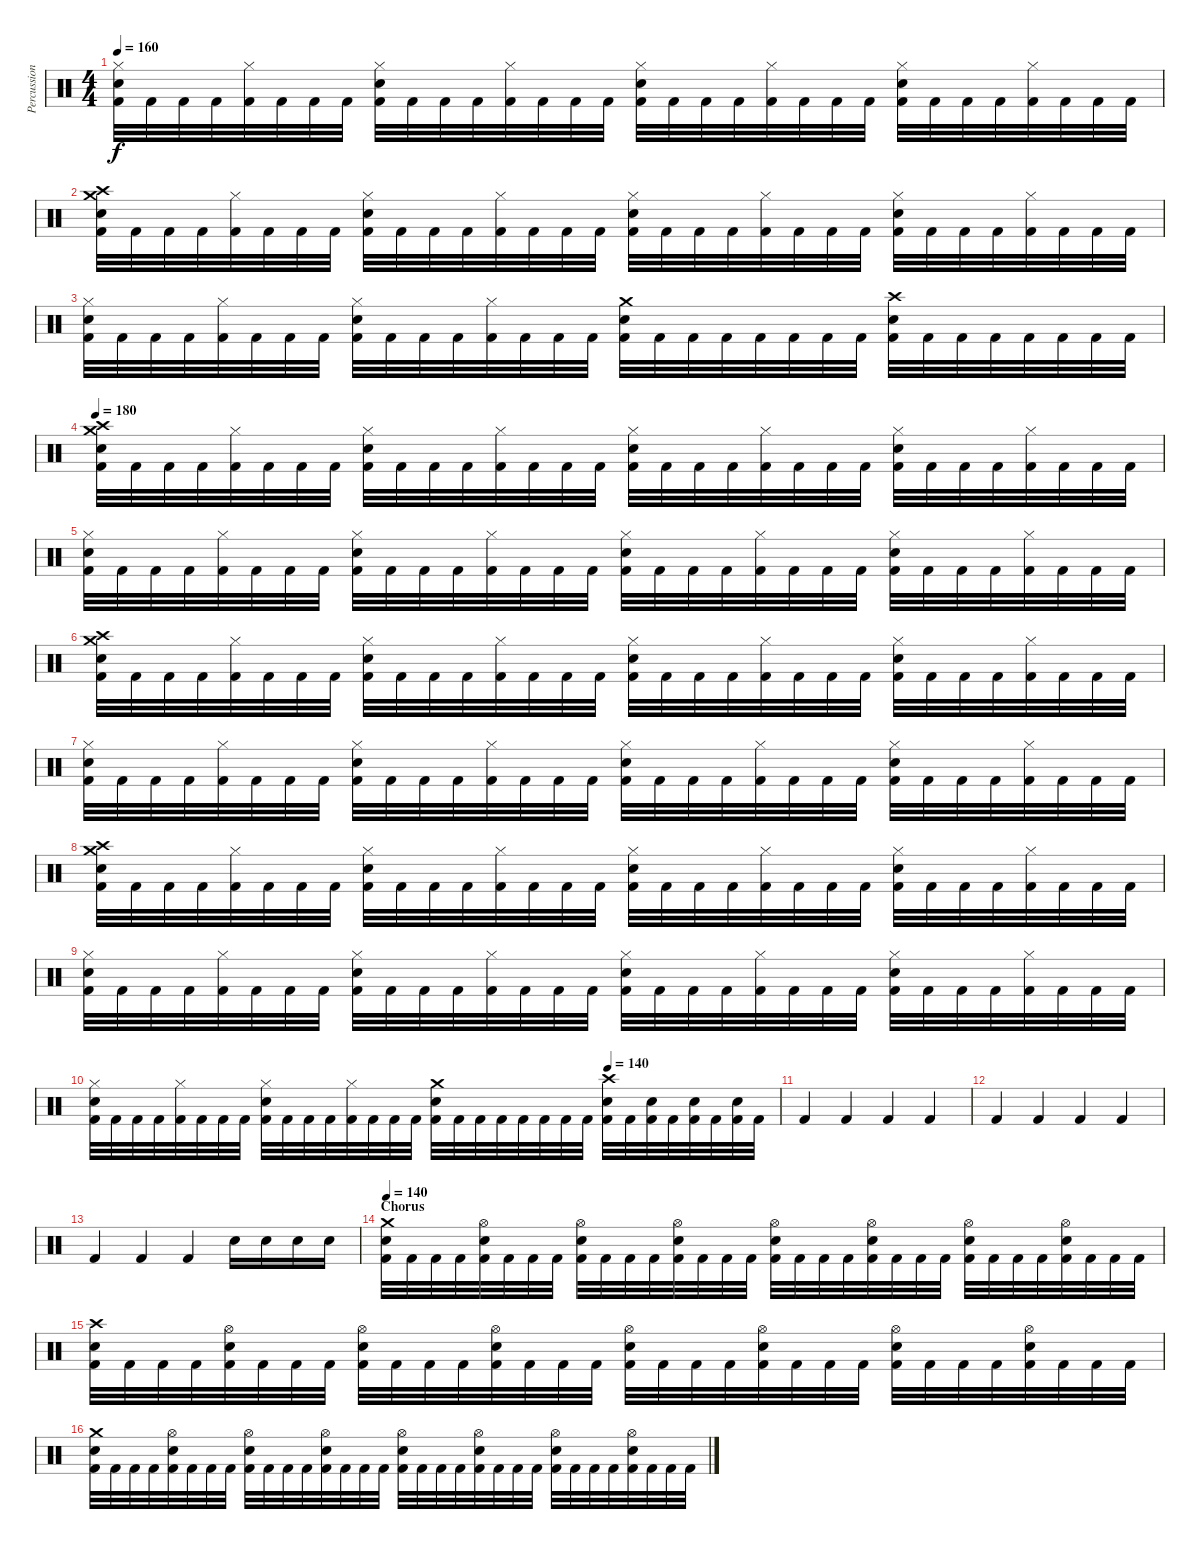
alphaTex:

\track ("Percussion" "Percussion") {instrument percussion}
\staff {score}
\articulation defaults
\ts (4 4)
\tempo 160
\clef neutral
\ks c
("Hi-Hat (closed)" "Electric Snare (hit)" "Kick (hit) 2").32{dy f} "Kick (hit) 2".32 "Kick (hit) 2".32 "Kick (hit) 2".32 ("Hi-Hat (closed)" "Kick (hit) 2").32 "Kick (hit) 2".32 "Kick (hit) 2".32 "Kick (hit) 2".32 ("Hi-Hat (closed)" "Electric Snare (hit)" "Kick (hit) 2").32 "Kick (hit) 2".32 "Kick (hit) 2".32 "Kick (hit) 2".32 ("Hi-Hat (closed)" "Kick (hit) 2").32 "Kick (hit) 2".32 "Kick (hit) 2".32 "Kick (hit) 2".32 ("Hi-Hat (closed)" "Electric Snare (hit)" "Kick (hit) 2").32 "Kick (hit) 2".32 "Kick (hit) 2".32 "Kick (hit) 2".32 ("Hi-Hat (closed)" "Kick (hit) 2").32 "Kick (hit) 2".32 "Kick (hit) 2".32 "Kick (hit) 2".32 ("Hi-Hat (closed)" "Electric Snare (hit)" "Kick (hit) 2").32 "Kick (hit) 2".32 "Kick (hit) 2".32 "Kick (hit) 2".32 ("Hi-Hat (closed)" "Kick (hit) 2").32 "Kick (hit) 2".32 "Kick (hit) 2".32 "Kick (hit) 2".32 |
("Crash medium (hit)" "Crash high (hit)" "Electric Snare (hit)" "Kick (hit) 2").32 "Kick (hit) 2".32 "Kick (hit) 2".32 "Kick (hit) 2".32 ("Hi-Hat (closed)" "Kick (hit) 2").32 "Kick (hit) 2".32 "Kick (hit) 2".32 "Kick (hit) 2".32 ("Hi-Hat (closed)" "Electric Snare (hit)" "Kick (hit) 2").32 "Kick (hit) 2".32 "Kick (hit) 2".32 "Kick (hit) 2".32 ("Hi-Hat (closed)" "Kick (hit) 2").32 "Kick (hit) 2".32 "Kick (hit) 2".32 "Kick (hit) 2".32 ("Hi-Hat (closed)" "Electric Snare (hit)" "Kick (hit) 2").32 "Kick (hit) 2".32 "Kick (hit) 2".32 "Kick (hit) 2".32 ("Hi-Hat (closed)" "Kick (hit) 2").32 "Kick (hit) 2".32 "Kick (hit) 2".32 "Kick (hit) 2".32 ("Hi-Hat (closed)" "Electric Snare (hit)" "Kick (hit) 2").32 "Kick (hit) 2".32 "Kick (hit) 2".32 "Kick (hit) 2".32 ("Hi-Hat (closed)" "Kick (hit) 2").32 "Kick (hit) 2".32 "Kick (hit) 2".32 "Kick (hit) 2".32 |
("Hi-Hat (closed)" "Electric Snare (hit)" "Kick (hit) 2").32 "Kick (hit) 2".32 "Kick (hit) 2".32 "Kick (hit) 2".32 ("Hi-Hat (closed)" "Kick (hit) 2").32 "Kick (hit) 2".32 "Kick (hit) 2".32 "Kick (hit) 2".32 ("Hi-Hat (closed)" "Electric Snare (hit)" "Kick (hit) 2").32 "Kick (hit) 2".32 "Kick (hit) 2".32 "Kick (hit) 2".32 ("Hi-Hat (closed)" "Kick (hit) 2").32 "Kick (hit) 2".32 "Kick (hit) 2".32 "Kick (hit) 2".32 ("Crash medium (hit)" "Electric Snare (hit)" "Kick (hit) 2").32 "Kick (hit) 2".32 "Kick (hit) 2".32 "Kick (hit) 2".32 "Kick (hit) 2".32 "Kick (hit) 2".32 "Kick (hit) 2".32 "Kick (hit) 2".32 ("Crash high (hit)" "Electric Snare (hit)" "Kick (hit) 2").32 "Kick (hit) 2".32 "Kick (hit) 2".32 "Kick (hit) 2".32 "Kick (hit) 2".32 "Kick (hit) 2".32 "Kick (hit) 2".32 "Kick (hit) 2".32 |
\tempo 180
("Crash medium (hit)" "Crash high (hit)" "Electric Snare (hit)" "Kick (hit) 2").32 "Kick (hit) 2".32 "Kick (hit) 2".32 "Kick (hit) 2".32 ("Hi-Hat (closed)" "Kick (hit) 2").32 "Kick (hit) 2".32 "Kick (hit) 2".32 "Kick (hit) 2".32 ("Hi-Hat (closed)" "Electric Snare (hit)" "Kick (hit) 2").32 "Kick (hit) 2".32 "Kick (hit) 2".32 "Kick (hit) 2".32 ("Hi-Hat (closed)" "Kick (hit) 2").32 "Kick (hit) 2".32 "Kick (hit) 2".32 "Kick (hit) 2".32 ("Hi-Hat (closed)" "Electric Snare (hit)" "Kick (hit) 2").32 "Kick (hit) 2".32 "Kick (hit) 2".32 "Kick (hit) 2".32 ("Hi-Hat (closed)" "Kick (hit) 2").32 "Kick (hit) 2".32 "Kick (hit) 2".32 "Kick (hit) 2".32 ("Hi-Hat (closed)" "Electric Snare (hit)" "Kick (hit) 2").32 "Kick (hit) 2".32 "Kick (hit) 2".32 "Kick (hit) 2".32 ("Hi-Hat (closed)" "Kick (hit) 2").32 "Kick (hit) 2".32 "Kick (hit) 2".32 "Kick (hit) 2".32 |
("Hi-Hat (closed)" "Electric Snare (hit)" "Kick (hit) 2").32 "Kick (hit) 2".32 "Kick (hit) 2".32 "Kick (hit) 2".32 ("Hi-Hat (closed)" "Kick (hit) 2").32 "Kick (hit) 2".32 "Kick (hit) 2".32 "Kick (hit) 2".32 ("Hi-Hat (closed)" "Electric Snare (hit)" "Kick (hit) 2").32 "Kick (hit) 2".32 "Kick (hit) 2".32 "Kick (hit) 2".32 ("Hi-Hat (closed)" "Kick (hit) 2").32 "Kick (hit) 2".32 "Kick (hit) 2".32 "Kick (hit) 2".32 ("Hi-Hat (closed)" "Electric Snare (hit)" "Kick (hit) 2").32 "Kick (hit) 2".32 "Kick (hit) 2".32 "Kick (hit) 2".32 ("Hi-Hat (closed)" "Kick (hit) 2").32 "Kick (hit) 2".32 "Kick (hit) 2".32 "Kick (hit) 2".32 ("Hi-Hat (closed)" "Electric Snare (hit)" "Kick (hit) 2").32 "Kick (hit) 2".32 "Kick (hit) 2".32 "Kick (hit) 2".32 ("Hi-Hat (closed)" "Kick (hit) 2").32 "Kick (hit) 2".32 "Kick (hit) 2".32 "Kick (hit) 2".32 |
("Crash medium (hit)" "Crash high (hit)" "Electric Snare (hit)" "Kick (hit) 2").32 "Kick (hit) 2".32 "Kick (hit) 2".32 "Kick (hit) 2".32 ("Hi-Hat (closed)" "Kick (hit) 2").32 "Kick (hit) 2".32 "Kick (hit) 2".32 "Kick (hit) 2".32 ("Hi-Hat (closed)" "Electric Snare (hit)" "Kick (hit) 2").32 "Kick (hit) 2".32 "Kick (hit) 2".32 "Kick (hit) 2".32 ("Hi-Hat (closed)" "Kick (hit) 2").32 "Kick (hit) 2".32 "Kick (hit) 2".32 "Kick (hit) 2".32 ("Hi-Hat (closed)" "Electric Snare (hit)" "Kick (hit) 2").32 "Kick (hit) 2".32 "Kick (hit) 2".32 "Kick (hit) 2".32 ("Hi-Hat (closed)" "Kick (hit) 2").32 "Kick (hit) 2".32 "Kick (hit) 2".32 "Kick (hit) 2".32 ("Hi-Hat (closed)" "Electric Snare (hit)" "Kick (hit) 2").32 "Kick (hit) 2".32 "Kick (hit) 2".32 "Kick (hit) 2".32 ("Hi-Hat (closed)" "Kick (hit) 2").32 "Kick (hit) 2".32 "Kick (hit) 2".32 "Kick (hit) 2".32 |
("Hi-Hat (closed)" "Electric Snare (hit)" "Kick (hit) 2").32 "Kick (hit) 2".32 "Kick (hit) 2".32 "Kick (hit) 2".32 ("Hi-Hat (closed)" "Kick (hit) 2").32 "Kick (hit) 2".32 "Kick (hit) 2".32 "Kick (hit) 2".32 ("Hi-Hat (closed)" "Electric Snare (hit)" "Kick (hit) 2").32 "Kick (hit) 2".32 "Kick (hit) 2".32 "Kick (hit) 2".32 ("Hi-Hat (closed)" "Kick (hit) 2").32 "Kick (hit) 2".32 "Kick (hit) 2".32 "Kick (hit) 2".32 ("Hi-Hat (closed)" "Electric Snare (hit)" "Kick (hit) 2").32 "Kick (hit) 2".32 "Kick (hit) 2".32 "Kick (hit) 2".32 ("Hi-Hat (closed)" "Kick (hit) 2").32 "Kick (hit) 2".32 "Kick (hit) 2".32 "Kick (hit) 2".32 ("Hi-Hat (closed)" "Electric Snare (hit)" "Kick (hit) 2").32 "Kick (hit) 2".32 "Kick (hit) 2".32 "Kick (hit) 2".32 ("Hi-Hat (closed)" "Kick (hit) 2").32 "Kick (hit) 2".32 "Kick (hit) 2".32 "Kick (hit) 2".32 |
("Crash medium (hit)" "Crash high (hit)" "Electric Snare (hit)" "Kick (hit) 2").32 "Kick (hit) 2".32 "Kick (hit) 2".32 "Kick (hit) 2".32 ("Hi-Hat (closed)" "Kick (hit) 2").32 "Kick (hit) 2".32 "Kick (hit) 2".32 "Kick (hit) 2".32 ("Hi-Hat (closed)" "Electric Snare (hit)" "Kick (hit) 2").32 "Kick (hit) 2".32 "Kick (hit) 2".32 "Kick (hit) 2".32 ("Hi-Hat (closed)" "Kick (hit) 2").32 "Kick (hit) 2".32 "Kick (hit) 2".32 "Kick (hit) 2".32 ("Hi-Hat (closed)" "Electric Snare (hit)" "Kick (hit) 2").32 "Kick (hit) 2".32 "Kick (hit) 2".32 "Kick (hit) 2".32 ("Hi-Hat (closed)" "Kick (hit) 2").32 "Kick (hit) 2".32 "Kick (hit) 2".32 "Kick (hit) 2".32 ("Hi-Hat (closed)" "Electric Snare (hit)" "Kick (hit) 2").32 "Kick (hit) 2".32 "Kick (hit) 2".32 "Kick (hit) 2".32 ("Hi-Hat (closed)" "Kick (hit) 2").32 "Kick (hit) 2".32 "Kick (hit) 2".32 "Kick (hit) 2".32 |
("Hi-Hat (closed)" "Electric Snare (hit)" "Kick (hit) 2").32 "Kick (hit) 2".32 "Kick (hit) 2".32 "Kick (hit) 2".32 ("Hi-Hat (closed)" "Kick (hit) 2").32 "Kick (hit) 2".32 "Kick (hit) 2".32 "Kick (hit) 2".32 ("Hi-Hat (closed)" "Electric Snare (hit)" "Kick (hit) 2").32 "Kick (hit) 2".32 "Kick (hit) 2".32 "Kick (hit) 2".32 ("Hi-Hat (closed)" "Kick (hit) 2").32 "Kick (hit) 2".32 "Kick (hit) 2".32 "Kick (hit) 2".32 ("Hi-Hat (closed)" "Electric Snare (hit)" "Kick (hit) 2").32 "Kick (hit) 2".32 "Kick (hit) 2".32 "Kick (hit) 2".32 ("Hi-Hat (closed)" "Kick (hit) 2").32 "Kick (hit) 2".32 "Kick (hit) 2".32 "Kick (hit) 2".32 ("Hi-Hat (closed)" "Electric Snare (hit)" "Kick (hit) 2").32 "Kick (hit) 2".32 "Kick (hit) 2".32 "Kick (hit) 2".32 ("Hi-Hat (closed)" "Kick (hit) 2").32 "Kick (hit) 2".32 "Kick (hit) 2".32 "Kick (hit) 2".32 |
\tempo (140 0.75)
("Hi-Hat (closed)" "Electric Snare (hit)" "Kick (hit) 2").32 "Kick (hit) 2".32 "Kick (hit) 2".32 "Kick (hit) 2".32 ("Hi-Hat (closed)" "Kick (hit) 2").32 "Kick (hit) 2".32 "Kick (hit) 2".32 "Kick (hit) 2".32 ("Hi-Hat (closed)" "Electric Snare (hit)" "Kick (hit) 2").32 "Kick (hit) 2".32 "Kick (hit) 2".32 "Kick (hit) 2".32 ("Hi-Hat (closed)" "Kick (hit) 2").32 "Kick (hit) 2".32 "Kick (hit) 2".32 "Kick (hit) 2".32 ("Crash medium (hit)" "Electric Snare (hit)" "Kick (hit) 2").32 "Kick (hit) 2".32 "Kick (hit) 2".32 "Kick (hit) 2".32 "Kick (hit) 2".32 "Kick (hit) 2".32 "Kick (hit) 2".32 "Kick (hit) 2".32 ("Crash high (hit)" "Electric Snare (hit)" "Kick (hit) 2").32 "Kick (hit) 2".32 ("Electric Snare (hit)" "Kick (hit) 2").32 "Kick (hit) 2".32 ("Electric Snare (hit)" "Kick (hit) 2").32 "Kick (hit) 2".32 ("Electric Snare (hit)" "Kick (hit) 2").32 "Kick (hit) 2".32 |
"Kick (hit) 2".4 "Kick (hit) 2".4 "Kick (hit) 2".4 "Kick (hit) 2".4 |
"Kick (hit) 2".4 "Kick (hit) 2".4 "Kick (hit) 2".4 "Kick (hit) 2".4 |
"Kick (hit) 2".4 "Kick (hit) 2".4 "Kick (hit) 2".4 "Electric Snare (hit)".16 "Electric Snare (hit)".16 "Electric Snare (hit)".16 "Electric Snare (hit)".16 |
\section ("" "Chorus")
\tempo 140
("Crash medium (hit)" "Electric Snare (hit)" "Kick (hit) 2").32 "Kick (hit) 2".32 "Kick (hit) 2".32 "Kick (hit) 2".32 ("Hi-Hat (open)" "Electric Snare (hit)" "Kick (hit) 2").32 "Kick (hit) 2".32 "Kick (hit) 2".32 "Kick (hit) 2".32 ("Hi-Hat (open)" "Electric Snare (hit)" "Kick (hit) 2").32 "Kick (hit) 2".32 "Kick (hit) 2".32 "Kick (hit) 2".32 ("Hi-Hat (open)" "Electric Snare (hit)" "Kick (hit) 2").32 "Kick (hit) 2".32 "Kick (hit) 2".32 "Kick (hit) 2".32 ("Hi-Hat (open)" "Electric Snare (hit)" "Kick (hit) 2").32 "Kick (hit) 2".32 "Kick (hit) 2".32 "Kick (hit) 2".32 ("Hi-Hat (open)" "Electric Snare (hit)" "Kick (hit) 2").32 "Kick (hit) 2".32 "Kick (hit) 2".32 "Kick (hit) 2".32 ("Hi-Hat (open)" "Electric Snare (hit)" "Kick (hit) 2").32 "Kick (hit) 2".32 "Kick (hit) 2".32 "Kick (hit) 2".32 ("Hi-Hat (open)" "Electric Snare (hit)" "Kick (hit) 2").32 "Kick (hit) 2".32 "Kick (hit) 2".32 "Kick (hit) 2".32 |
("Crash high (hit)" "Electric Snare (hit)" "Kick (hit) 2").32 "Kick (hit) 2".32 "Kick (hit) 2".32 "Kick (hit) 2".32 ("Hi-Hat (open)" "Electric Snare (hit)" "Kick (hit) 2").32 "Kick (hit) 2".32 "Kick (hit) 2".32 "Kick (hit) 2".32 ("Hi-Hat (open)" "Electric Snare (hit)" "Kick (hit) 2").32 "Kick (hit) 2".32 "Kick (hit) 2".32 "Kick (hit) 2".32 ("Hi-Hat (open)" "Electric Snare (hit)" "Kick (hit) 2").32 "Kick (hit) 2".32 "Kick (hit) 2".32 "Kick (hit) 2".32 ("Hi-Hat (open)" "Electric Snare (hit)" "Kick (hit) 2").32 "Kick (hit) 2".32 "Kick (hit) 2".32 "Kick (hit) 2".32 ("Hi-Hat (open)" "Electric Snare (hit)" "Kick (hit) 2").32 "Kick (hit) 2".32 "Kick (hit) 2".32 "Kick (hit) 2".32 ("Hi-Hat (open)" "Electric Snare (hit)" "Kick (hit) 2").32 "Kick (hit) 2".32 "Kick (hit) 2".32 "Kick (hit) 2".32 ("Hi-Hat (open)" "Electric Snare (hit)" "Kick (hit) 2").32 "Kick (hit) 2".32 "Kick (hit) 2".32 "Kick (hit) 2".32 |
("Crash medium (hit)" "Electric Snare (hit)" "Kick (hit) 2").32 "Kick (hit) 2".32 "Kick (hit) 2".32 "Kick (hit) 2".32 ("Hi-Hat (open)" "Electric Snare (hit)" "Kick (hit) 2").32 "Kick (hit) 2".32 "Kick (hit) 2".32 "Kick (hit) 2".32 ("Hi-Hat (open)" "Electric Snare (hit)" "Kick (hit) 2").32 "Kick (hit) 2".32 "Kick (hit) 2".32 "Kick (hit) 2".32 ("Hi-Hat (open)" "Electric Snare (hit)" "Kick (hit) 2").32 "Kick (hit) 2".32 "Kick (hit) 2".32 "Kick (hit) 2".32 ("Hi-Hat (open)" "Electric Snare (hit)" "Kick (hit) 2").32 "Kick (hit) 2".32 "Kick (hit) 2".32 "Kick (hit) 2".32 ("Hi-Hat (open)" "Electric Snare (hit)" "Kick (hit) 2").32 "Kick (hit) 2".32 "Kick (hit) 2".32 "Kick (hit) 2".32 ("Hi-Hat (open)" "Electric Snare (hit)" "Kick (hit) 2").32 "Kick (hit) 2".32 "Kick (hit) 2".32 "Kick (hit) 2".32 ("Hi-Hat (open)" "Electric Snare (hit)" "Kick (hit) 2").32 "Kick (hit) 2".32 "Kick (hit) 2".32 "Kick (hit) 2".32
